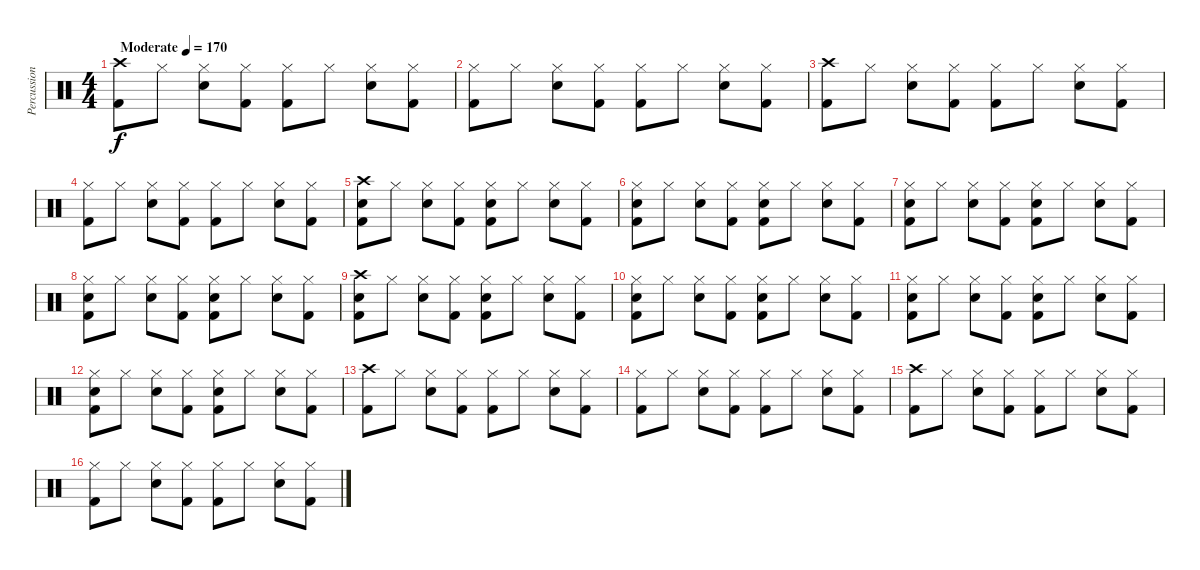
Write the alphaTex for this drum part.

\track ("Percussion" "Percussion") {instrument percussion}
\staff {score}
\articulation defaults
\ts (4 4)
\tempo (170 "Moderate")
\clef neutral
\ks c
("Crash high (hit)" "Kick (hit) 2").8{dy f} "Hi-Hat (closed)".8 ("Hi-Hat (closed)" "Snare (hit) 2").8 ("Hi-Hat (closed)" "Kick (hit) 2").8 ("Hi-Hat (closed)" "Kick (hit) 2").8 "Hi-Hat (closed)".8 ("Hi-Hat (closed)" "Snare (hit) 2").8 ("Hi-Hat (closed)" "Kick (hit) 2").8 |
("Hi-Hat (closed)" "Kick (hit) 2").8 "Hi-Hat (closed)".8 ("Hi-Hat (closed)" "Snare (hit) 2").8 ("Hi-Hat (closed)" "Kick (hit) 2").8 ("Hi-Hat (closed)" "Kick (hit) 2").8 "Hi-Hat (closed)".8 ("Hi-Hat (closed)" "Snare (hit) 2").8 ("Hi-Hat (closed)" "Kick (hit) 2").8 |
("Crash high (hit)" "Kick (hit) 2").8 "Hi-Hat (closed)".8 ("Hi-Hat (closed)" "Snare (hit) 2").8 ("Hi-Hat (closed)" "Kick (hit) 2").8 ("Hi-Hat (closed)" "Kick (hit) 2").8 "Hi-Hat (closed)".8 ("Hi-Hat (closed)" "Snare (hit) 2").8 ("Hi-Hat (closed)" "Kick (hit) 2").8 |
("Hi-Hat (closed)" "Kick (hit) 2").8 "Hi-Hat (closed)".8 ("Hi-Hat (closed)" "Snare (hit) 2").8 ("Hi-Hat (closed)" "Kick (hit) 2").8 ("Hi-Hat (closed)" "Kick (hit) 2").8 "Hi-Hat (closed)".8 ("Hi-Hat (closed)" "Snare (hit) 2").8 ("Hi-Hat (closed)" "Kick (hit) 2").8 |
("Snare (hit) 2" "Crash high (hit)" "Kick (hit) 2").8 "Hi-Hat (closed)".8 ("Snare (hit) 2" "Hi-Hat (closed)").8 ("Hi-Hat (closed)" "Kick (hit) 2").8 ("Snare (hit) 2" "Hi-Hat (closed)" "Kick (hit) 2").8 "Hi-Hat (closed)".8 ("Snare (hit) 2" "Hi-Hat (closed)").8 ("Hi-Hat (closed)" "Kick (hit) 2").8 |
("Snare (hit) 2" "Hi-Hat (closed)" "Kick (hit) 2").8 "Hi-Hat (closed)".8 ("Snare (hit) 2" "Hi-Hat (closed)").8 ("Hi-Hat (closed)" "Kick (hit) 2").8 ("Snare (hit) 2" "Hi-Hat (closed)" "Kick (hit) 2").8 "Hi-Hat (closed)".8 ("Snare (hit) 2" "Hi-Hat (closed)").8 ("Hi-Hat (closed)" "Kick (hit) 2").8 |
("Snare (hit) 2" "Hi-Hat (closed)" "Kick (hit) 2").8 "Hi-Hat (closed)".8 ("Snare (hit) 2" "Hi-Hat (closed)").8 ("Hi-Hat (closed)" "Kick (hit) 2").8 ("Snare (hit) 2" "Hi-Hat (closed)" "Kick (hit) 2").8 "Hi-Hat (closed)".8 ("Snare (hit) 2" "Hi-Hat (closed)").8 ("Hi-Hat (closed)" "Kick (hit) 2").8 |
("Snare (hit) 2" "Hi-Hat (closed)" "Kick (hit) 2").8 "Hi-Hat (closed)".8 ("Snare (hit) 2" "Hi-Hat (closed)").8 ("Hi-Hat (closed)" "Kick (hit) 2").8 ("Snare (hit) 2" "Hi-Hat (closed)" "Kick (hit) 2").8 "Hi-Hat (closed)".8 ("Snare (hit) 2" "Hi-Hat (closed)").8 ("Hi-Hat (closed)" "Kick (hit) 2").8 |
("Snare (hit) 2" "Crash high (hit)" "Kick (hit) 2").8 "Hi-Hat (closed)".8 ("Snare (hit) 2" "Hi-Hat (closed)").8 ("Hi-Hat (closed)" "Kick (hit) 2").8 ("Snare (hit) 2" "Hi-Hat (closed)" "Kick (hit) 2").8 "Hi-Hat (closed)".8 ("Snare (hit) 2" "Hi-Hat (closed)").8 ("Hi-Hat (closed)" "Kick (hit) 2").8 |
("Snare (hit) 2" "Hi-Hat (closed)" "Kick (hit) 2").8 "Hi-Hat (closed)".8 ("Snare (hit) 2" "Hi-Hat (closed)").8 ("Hi-Hat (closed)" "Kick (hit) 2").8 ("Snare (hit) 2" "Hi-Hat (closed)" "Kick (hit) 2").8 "Hi-Hat (closed)".8 ("Snare (hit) 2" "Hi-Hat (closed)").8 ("Hi-Hat (closed)" "Kick (hit) 2").8 |
("Snare (hit) 2" "Hi-Hat (closed)" "Kick (hit) 2").8 "Hi-Hat (closed)".8 ("Snare (hit) 2" "Hi-Hat (closed)").8 ("Hi-Hat (closed)" "Kick (hit) 2").8 ("Snare (hit) 2" "Hi-Hat (closed)" "Kick (hit) 2").8 "Hi-Hat (closed)".8 ("Snare (hit) 2" "Hi-Hat (closed)").8 ("Hi-Hat (closed)" "Kick (hit) 2").8 |
("Snare (hit) 2" "Hi-Hat (closed)" "Kick (hit) 2").8 "Hi-Hat (closed)".8 ("Snare (hit) 2" "Hi-Hat (closed)").8 ("Hi-Hat (closed)" "Kick (hit) 2").8 ("Snare (hit) 2" "Hi-Hat (closed)" "Kick (hit) 2").8 "Hi-Hat (closed)".8 ("Snare (hit) 2" "Hi-Hat (closed)").8 ("Hi-Hat (closed)" "Kick (hit) 2").8 |
("Crash high (hit)" "Kick (hit) 2").8 "Hi-Hat (closed)".8 ("Hi-Hat (closed)" "Snare (hit) 2").8 ("Hi-Hat (closed)" "Kick (hit) 2").8 ("Hi-Hat (closed)" "Kick (hit) 2").8 "Hi-Hat (closed)".8 ("Hi-Hat (closed)" "Snare (hit) 2").8 ("Hi-Hat (closed)" "Kick (hit) 2").8 |
("Hi-Hat (closed)" "Kick (hit) 2").8 "Hi-Hat (closed)".8 ("Hi-Hat (closed)" "Snare (hit) 2").8 ("Hi-Hat (closed)" "Kick (hit) 2").8 ("Hi-Hat (closed)" "Kick (hit) 2").8 "Hi-Hat (closed)".8 ("Hi-Hat (closed)" "Snare (hit) 2").8 ("Hi-Hat (closed)" "Kick (hit) 2").8 |
("Crash high (hit)" "Kick (hit) 2").8 "Hi-Hat (closed)".8 ("Hi-Hat (closed)" "Snare (hit) 2").8 ("Hi-Hat (closed)" "Kick (hit) 2").8 ("Hi-Hat (closed)" "Kick (hit) 2").8 "Hi-Hat (closed)".8 ("Hi-Hat (closed)" "Snare (hit) 2").8 ("Hi-Hat (closed)" "Kick (hit) 2").8 |
("Hi-Hat (closed)" "Kick (hit) 2").8 "Hi-Hat (closed)".8 ("Hi-Hat (closed)" "Snare (hit) 2").8 ("Hi-Hat (closed)" "Kick (hit) 2").8 ("Hi-Hat (closed)" "Kick (hit) 2").8 "Hi-Hat (closed)".8 ("Hi-Hat (closed)" "Snare (hit) 2").8 ("Hi-Hat (closed)" "Kick (hit) 2").8
